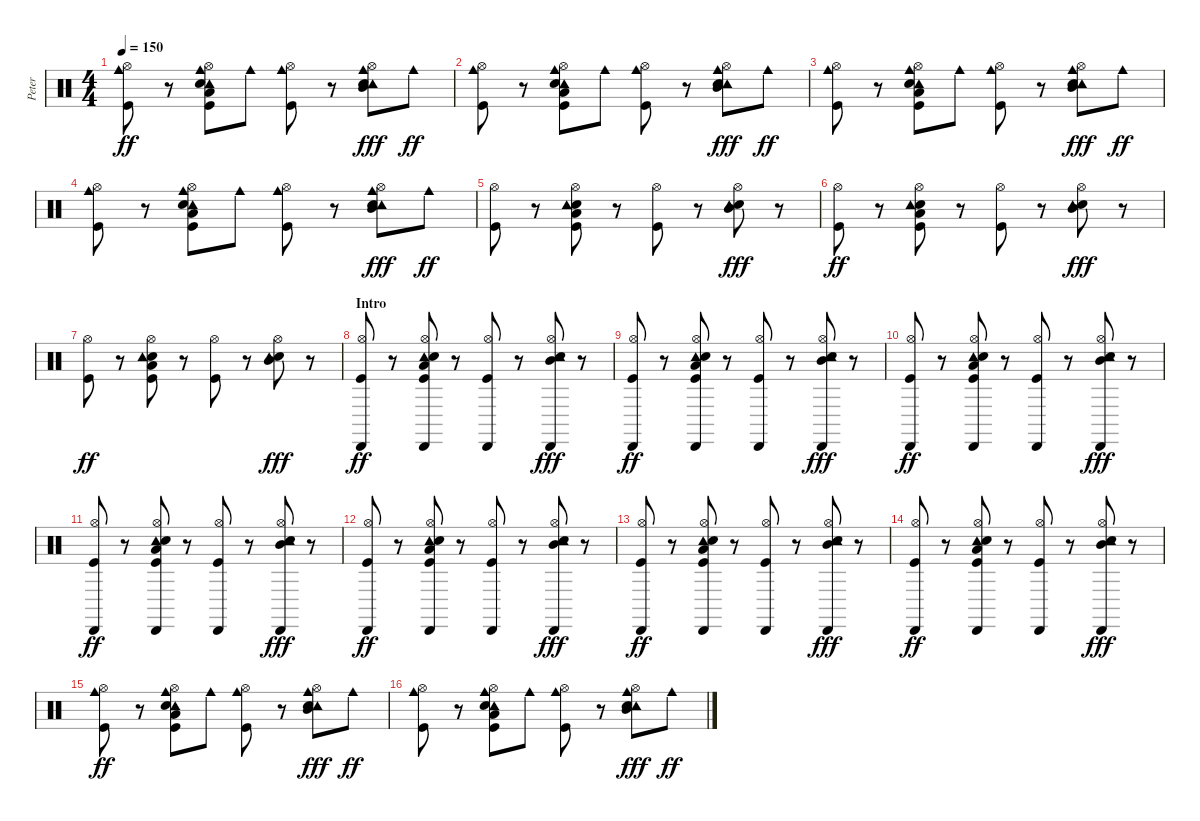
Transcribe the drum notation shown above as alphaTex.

\track ("Peter" "Peter") {instrument percussion}
\staff {score}
\articulation defaults
\ts (4 4)
\tempo 150
\clef neutral
\ks c
("Cowbell medium (hit)" "Hi-Hat (open)" "Kick (hit)").8{dy ff} r.8 ("Cowbell medium (hit)" "Tambourine (hit)" "Hi-Hat (open)" "Hand Clap (hit)" "Low Floor Tom (hit)" "Kick (hit)").8 "Cowbell medium (hit)".8 ("Cowbell medium (hit)" "Hi-Hat (open)" "Kick (hit)").8 r.8 ("Cowbell medium (hit)" "Tambourine (hit)" "Hi-Hat (open)" "Mid Tom (hit)" "Hand Clap (hit)").8{dy fff} "Cowbell medium (hit)".8{dy ff} |
("Cowbell medium (hit)" "Hi-Hat (open)" "Kick (hit)").8 r.8 ("Cowbell medium (hit)" "Tambourine (hit)" "Hi-Hat (open)" "Hand Clap (hit)" "Low Floor Tom (hit)" "Kick (hit)").8 "Cowbell medium (hit)".8 ("Cowbell medium (hit)" "Hi-Hat (open)" "Kick (hit)").8 r.8 ("Cowbell medium (hit)" "Tambourine (hit)" "Hi-Hat (open)" "Mid Tom (hit)" "Hand Clap (hit)").8{dy fff} "Cowbell medium (hit)".8{dy ff} |
("Cowbell medium (hit)" "Hi-Hat (open)" "Kick (hit)").8 r.8 ("Cowbell medium (hit)" "Tambourine (hit)" "Hi-Hat (open)" "Hand Clap (hit)" "Low Floor Tom (hit)" "Kick (hit)").8 "Cowbell medium (hit)".8 ("Cowbell medium (hit)" "Hi-Hat (open)" "Kick (hit)").8 r.8 ("Cowbell medium (hit)" "Tambourine (hit)" "Hi-Hat (open)" "Mid Tom (hit)" "Hand Clap (hit)").8{dy fff} "Cowbell medium (hit)".8{dy ff} |
("Cowbell medium (hit)" "Hi-Hat (open)" "Kick (hit)").8 r.8 ("Cowbell medium (hit)" "Tambourine (hit)" "Hi-Hat (open)" "Hand Clap (hit)" "Low Floor Tom (hit)" "Kick (hit)").8 "Cowbell medium (hit)".8 ("Cowbell medium (hit)" "Hi-Hat (open)" "Kick (hit)").8 r.8 ("Cowbell medium (hit)" "Tambourine (hit)" "Hi-Hat (open)" "Mid Tom (hit)" "Hand Clap (hit)").8{dy fff} "Cowbell medium (hit)".8{dy ff} |
("Hi-Hat (open)" "Kick (hit)").8 r.8 ("Hand Clap (hit)" "Tambourine (hit)" "Hi-Hat (open)" "Low Floor Tom (hit)" "Kick (hit)").8 r.8 ("Hi-Hat (open)" "Kick (hit)").8 r.8 ("Hand Clap (hit)" "Tambourine (hit)" "Hi-Hat (open)" "Mid Tom (hit)").8{dy fff} r.8 |
("Hi-Hat (open)" "Kick (hit)").8{dy ff} r.8 ("Hand Clap (hit)" "Tambourine (hit)" "Hi-Hat (open)" "Low Floor Tom (hit)" "Kick (hit)").8 r.8 ("Hi-Hat (open)" "Kick (hit)").8 r.8 ("Hand Clap (hit)" "Tambourine (hit)" "Hi-Hat (open)" "Mid Tom (hit)").8{dy fff} r.8 |
("Hi-Hat (open)" "Kick (hit)").8{dy ff} r.8 ("Hand Clap (hit)" "Tambourine (hit)" "Hi-Hat (open)" "Low Floor Tom (hit)" "Kick (hit)").8 r.8 ("Hi-Hat (open)" "Kick (hit)").8 r.8 ("Hand Clap (hit)" "Tambourine (hit)" "Hi-Hat (open)" "Mid Tom (hit)").8{dy fff} r.8 |
\section ("" "Intro")
("Cabasa (hit)" "Hi-Hat (open)" "Kick (hit)").8{dy ff} r.8 ("Cabasa (hit)" "Tambourine (hit)" "Hi-Hat (open)" "Hand Clap (hit)" "Low Floor Tom (hit)" "Kick (hit)").8 r.8 ("Cabasa (hit)" "Hi-Hat (open)" "Kick (hit)").8 r.8 ("Cabasa (hit)" "Tambourine (hit)" "Hi-Hat (open)" "Mid Tom (hit)" "Hand Clap (hit)").8{dy fff} r.8 |
("Cabasa (hit)" "Hi-Hat (open)" "Kick (hit)").8{dy ff} r.8 ("Cabasa (hit)" "Tambourine (hit)" "Hi-Hat (open)" "Hand Clap (hit)" "Low Floor Tom (hit)" "Kick (hit)").8 r.8 ("Cabasa (hit)" "Hi-Hat (open)" "Kick (hit)").8 r.8 ("Cabasa (hit)" "Tambourine (hit)" "Hi-Hat (open)" "Mid Tom (hit)" "Hand Clap (hit)").8{dy fff} r.8 |
("Cabasa (hit)" "Hi-Hat (open)" "Kick (hit)").8{dy ff} r.8 ("Cabasa (hit)" "Tambourine (hit)" "Hi-Hat (open)" "Hand Clap (hit)" "Low Floor Tom (hit)" "Kick (hit)").8 r.8 ("Cabasa (hit)" "Hi-Hat (open)" "Kick (hit)").8 r.8 ("Cabasa (hit)" "Tambourine (hit)" "Hi-Hat (open)" "Mid Tom (hit)" "Hand Clap (hit)").8{dy fff} r.8 |
("Cabasa (hit)" "Hi-Hat (open)" "Kick (hit)").8{dy ff} r.8 ("Cabasa (hit)" "Tambourine (hit)" "Hi-Hat (open)" "Hand Clap (hit)" "Low Floor Tom (hit)" "Kick (hit)").8 r.8 ("Cabasa (hit)" "Hi-Hat (open)" "Kick (hit)").8 r.8 ("Cabasa (hit)" "Tambourine (hit)" "Hi-Hat (open)" "Mid Tom (hit)" "Hand Clap (hit)").8{dy fff} r.8 |
("Cabasa (hit)" "Hi-Hat (open)" "Kick (hit)").8{dy ff} r.8 ("Cabasa (hit)" "Tambourine (hit)" "Hi-Hat (open)" "Hand Clap (hit)" "Low Floor Tom (hit)" "Kick (hit)").8 r.8 ("Cabasa (hit)" "Hi-Hat (open)" "Kick (hit)").8 r.8 ("Cabasa (hit)" "Tambourine (hit)" "Hi-Hat (open)" "Mid Tom (hit)" "Hand Clap (hit)").8{dy fff} r.8 |
("Cabasa (hit)" "Hi-Hat (open)" "Kick (hit)").8{dy ff} r.8 ("Cabasa (hit)" "Tambourine (hit)" "Hi-Hat (open)" "Hand Clap (hit)" "Low Floor Tom (hit)" "Kick (hit)").8 r.8 ("Cabasa (hit)" "Hi-Hat (open)" "Kick (hit)").8 r.8 ("Cabasa (hit)" "Tambourine (hit)" "Hi-Hat (open)" "Mid Tom (hit)" "Hand Clap (hit)").8{dy fff} r.8 |
("Cabasa (hit)" "Hi-Hat (open)" "Kick (hit)").8{dy ff} r.8 ("Cabasa (hit)" "Tambourine (hit)" "Hi-Hat (open)" "Hand Clap (hit)" "Low Floor Tom (hit)" "Kick (hit)").8 r.8 ("Cabasa (hit)" "Hi-Hat (open)" "Kick (hit)").8 r.8 ("Cabasa (hit)" "Tambourine (hit)" "Hi-Hat (open)" "Mid Tom (hit)" "Hand Clap (hit)").8{dy fff} r.8 |
("Cowbell medium (hit)" "Hi-Hat (open)" "Kick (hit)").8{dy ff} r.8 ("Cowbell medium (hit)" "Tambourine (hit)" "Hi-Hat (open)" "Hand Clap (hit)" "Low Floor Tom (hit)" "Kick (hit)").8 "Cowbell medium (hit)".8 ("Cowbell medium (hit)" "Hi-Hat (open)" "Kick (hit)").8 r.8 ("Cowbell medium (hit)" "Tambourine (hit)" "Hi-Hat (open)" "Mid Tom (hit)" "Hand Clap (hit)").8{dy fff} "Cowbell medium (hit)".8{dy ff} |
("Cowbell medium (hit)" "Hi-Hat (open)" "Kick (hit)").8 r.8 ("Cowbell medium (hit)" "Tambourine (hit)" "Hi-Hat (open)" "Hand Clap (hit)" "Low Floor Tom (hit)" "Kick (hit)").8 "Cowbell medium (hit)".8 ("Cowbell medium (hit)" "Hi-Hat (open)" "Kick (hit)").8 r.8 ("Cowbell medium (hit)" "Tambourine (hit)" "Hi-Hat (open)" "Mid Tom (hit)" "Hand Clap (hit)").8{dy fff} "Cowbell medium (hit)".8{dy ff}
